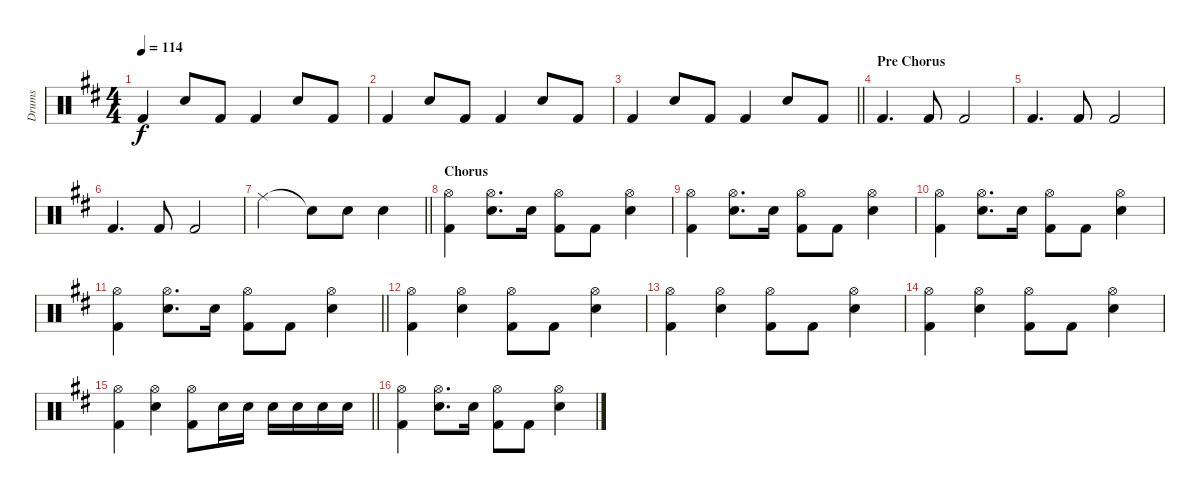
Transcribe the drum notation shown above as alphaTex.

\track ("Drums" "Drums") {instrument percussion}
\staff {score}
\articulation defaults
\ts (4 4)
\tempo 114
\clef neutral
\ks bminor "Kick (hit) 2".4{dy f} "Snare (hit) 2".8 "Kick (hit) 2".8 "Kick (hit) 2".4 "Snare (hit) 2".8 "Kick (hit) 2".8
|
"Kick (hit) 2".4 "Snare (hit) 2".8 "Kick (hit) 2".8 "Kick (hit) 2".4 "Snare (hit) 2".8 "Kick (hit) 2".8 |
\barLineRight lightlight "Kick (hit) 2".4 "Snare (hit) 2".8 "Kick (hit) 2".8 "Kick (hit) 2".4 "Snare (hit) 2".8 "Kick (hit) 2".8
|
\section ("" "Pre Chorus")
"Kick (hit) 2".4{d} "Kick (hit) 2".8 "Kick (hit) 2".2 |
"Kick (hit) 2".4{d} "Kick (hit) 2".8 "Kick (hit) 2".2 |
"Kick (hit) 2".4{d} "Kick (hit) 2".8 "Kick (hit) 2".2 |
\barLineRight lightlight "Ride (middle)".2 "Snare (hit)"{t}.8 "Snare (hit) 2".8 "Snare (hit) 2".4
|
\section ("" "Chorus")
("Hi-Hat (open)" "Kick (hit) 2").4 ("Hi-Hat (open)" "Snare (hit) 2").8{d} "Snare (hit) 2".16 ("Hi-Hat (open)" "Kick (hit) 2").8 "Kick (hit) 2".8 ("Hi-Hat (open)" "Snare (hit) 2").4 |
("Hi-Hat (open)" "Kick (hit) 2").4 ("Hi-Hat (open)" "Snare (hit) 2").8{d} "Snare (hit) 2".16 ("Hi-Hat (open)" "Kick (hit) 2").8 "Kick (hit) 2".8 ("Hi-Hat (open)" "Snare (hit) 2").4 |
("Hi-Hat (open)" "Kick (hit) 2").4 ("Hi-Hat (open)" "Snare (hit) 2").8{d} "Snare (hit) 2".16 ("Hi-Hat (open)" "Kick (hit) 2").8 "Kick (hit) 2".8 ("Hi-Hat (open)" "Snare (hit) 2").4 |
\barLineRight lightlight
("Hi-Hat (open)" "Kick (hit) 2").4 ("Hi-Hat (open)" "Snare (hit) 2").8{d} "Snare (hit) 2".16 ("Hi-Hat (open)" "Kick (hit) 2").8 "Kick (hit) 2".8 ("Hi-Hat (open)" "Snare (hit) 2").4 |
("Hi-Hat (open)" "Kick (hit) 2").4 ("Hi-Hat (open)" "Snare (hit) 2").4 ("Hi-Hat (open)" "Kick (hit) 2").8 "Kick (hit) 2".8 ("Hi-Hat (open)" "Snare (hit) 2").4 |
("Hi-Hat (open)" "Kick (hit) 2").4 ("Hi-Hat (open)" "Snare (hit) 2").4 ("Hi-Hat (open)" "Kick (hit) 2").8 "Kick (hit) 2".8 ("Hi-Hat (open)" "Snare (hit) 2").4 |
("Hi-Hat (open)" "Kick (hit) 2").4 ("Hi-Hat (open)" "Snare (hit) 2").4 ("Hi-Hat (open)" "Kick (hit) 2").8 "Kick (hit) 2".8 ("Hi-Hat (open)" "Snare (hit) 2").4 |
\barLineRight lightlight
("Hi-Hat (open)" "Kick (hit) 2").4 ("Hi-Hat (open)" "Snare (hit) 2").4 ("Hi-Hat (open)" "Kick (hit) 2").8 "Snare (hit) 2".16 "Snare (hit) 2".16 "Snare (hit) 2".16 "Snare (hit) 2".16 "Snare (hit) 2".16 "Snare (hit) 2".16 |
("Hi-Hat (open)" "Kick (hit) 2").4 ("Hi-Hat (open)" "Snare (hit) 2").8{d} "Snare (hit) 2".16 ("Hi-Hat (open)" "Kick (hit) 2").8 "Kick (hit) 2".8 ("Hi-Hat (open)" "Snare (hit) 2").4
